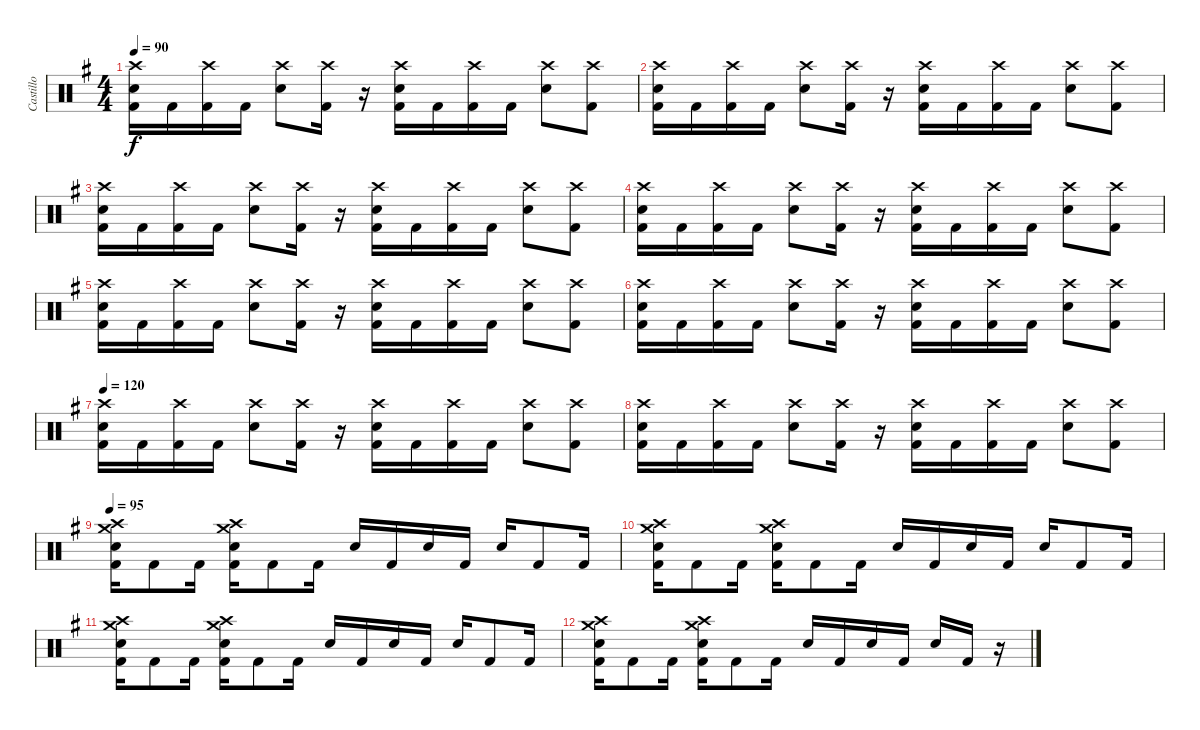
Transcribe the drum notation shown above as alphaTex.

\track ("Castillo" "Castillo") {instrument percussion}
\staff {score}
\articulation defaults
\ts (4 4)
\tempo 90
\clef neutral
\ks g
("Kick (hit) 2" "Electric Snare (hit)" "Crash high (hit)").16{dy f} "Kick (hit) 2".16 ("Kick (hit) 2" "Crash high (hit)").16 "Kick (hit) 2".16 ("Electric Snare (hit)" "Crash high (hit)").8 ("Kick (hit) 2" "Crash high (hit)").16 r.16 ("Kick (hit) 2" "Electric Snare (hit)" "Crash high (hit)").16 "Kick (hit) 2".16 ("Kick (hit) 2" "Crash high (hit)").16 "Kick (hit) 2".16 ("Electric Snare (hit)" "Crash high (hit)").8 ("Kick (hit) 2" "Crash high (hit)").8 |
("Kick (hit) 2" "Electric Snare (hit)" "Crash high (hit)").16 "Kick (hit) 2".16 ("Kick (hit) 2" "Crash high (hit)").16 "Kick (hit) 2".16 ("Electric Snare (hit)" "Crash high (hit)").8 ("Kick (hit) 2" "Crash high (hit)").16 r.16 ("Kick (hit) 2" "Electric Snare (hit)" "Crash high (hit)").16 "Kick (hit) 2".16 ("Kick (hit) 2" "Crash high (hit)").16 "Kick (hit) 2".16 ("Electric Snare (hit)" "Crash high (hit)").8 ("Kick (hit) 2" "Crash high (hit)").8 |
("Kick (hit) 2" "Electric Snare (hit)" "Crash high (hit)").16 "Kick (hit) 2".16 ("Kick (hit) 2" "Crash high (hit)").16 "Kick (hit) 2".16 ("Electric Snare (hit)" "Crash high (hit)").8 ("Kick (hit) 2" "Crash high (hit)").16 r.16 ("Kick (hit) 2" "Electric Snare (hit)" "Crash high (hit)").16 "Kick (hit) 2".16 ("Kick (hit) 2" "Crash high (hit)").16 "Kick (hit) 2".16 ("Electric Snare (hit)" "Crash high (hit)").8 ("Kick (hit) 2" "Crash high (hit)").8 |
("Kick (hit) 2" "Electric Snare (hit)" "Crash high (hit)").16 "Kick (hit) 2".16 ("Kick (hit) 2" "Crash high (hit)").16 "Kick (hit) 2".16 ("Electric Snare (hit)" "Crash high (hit)").8 ("Kick (hit) 2" "Crash high (hit)").16 r.16 ("Kick (hit) 2" "Electric Snare (hit)" "Crash high (hit)").16 "Kick (hit) 2".16 ("Kick (hit) 2" "Crash high (hit)").16 "Kick (hit) 2".16 ("Electric Snare (hit)" "Crash high (hit)").8 ("Kick (hit) 2" "Crash high (hit)").8 |
("Kick (hit) 2" "Electric Snare (hit)" "Crash high (hit)").16 "Kick (hit) 2".16 ("Kick (hit) 2" "Crash high (hit)").16 "Kick (hit) 2".16 ("Electric Snare (hit)" "Crash high (hit)").8 ("Kick (hit) 2" "Crash high (hit)").16 r.16 ("Kick (hit) 2" "Electric Snare (hit)" "Crash high (hit)").16 "Kick (hit) 2".16 ("Kick (hit) 2" "Crash high (hit)").16 "Kick (hit) 2".16 ("Electric Snare (hit)" "Crash high (hit)").8 ("Kick (hit) 2" "Crash high (hit)").8 |
("Kick (hit) 2" "Electric Snare (hit)" "Crash high (hit)").16 "Kick (hit) 2".16 ("Kick (hit) 2" "Crash high (hit)").16 "Kick (hit) 2".16 ("Electric Snare (hit)" "Crash high (hit)").8 ("Kick (hit) 2" "Crash high (hit)").16 r.16 ("Kick (hit) 2" "Electric Snare (hit)" "Crash high (hit)").16 "Kick (hit) 2".16 ("Kick (hit) 2" "Crash high (hit)").16 "Kick (hit) 2".16 ("Electric Snare (hit)" "Crash high (hit)").8 ("Kick (hit) 2" "Crash high (hit)").8 |
\tempo 120
("Kick (hit) 2" "Electric Snare (hit)" "Crash high (hit)").16 "Kick (hit) 2".16 ("Kick (hit) 2" "Crash high (hit)").16 "Kick (hit) 2".16 ("Electric Snare (hit)" "Crash high (hit)").8 ("Kick (hit) 2" "Crash high (hit)").16 r.16 ("Kick (hit) 2" "Electric Snare (hit)" "Crash high (hit)").16 "Kick (hit) 2".16 ("Kick (hit) 2" "Crash high (hit)").16 "Kick (hit) 2".16 ("Electric Snare (hit)" "Crash high (hit)").8 ("Kick (hit) 2" "Crash high (hit)").8 |
("Kick (hit) 2" "Electric Snare (hit)" "Crash high (hit)").16 "Kick (hit) 2".16 ("Kick (hit) 2" "Crash high (hit)").16 "Kick (hit) 2".16 ("Electric Snare (hit)" "Crash high (hit)").8 ("Kick (hit) 2" "Crash high (hit)").16 r.16 ("Kick (hit) 2" "Electric Snare (hit)" "Crash high (hit)").16 "Kick (hit) 2".16 ("Kick (hit) 2" "Crash high (hit)").16 "Kick (hit) 2".16 ("Electric Snare (hit)" "Crash high (hit)").8 ("Kick (hit) 2" "Crash high (hit)").8 |
\tempo 95
("Kick (hit) 2" "Electric Snare (hit)" "Crash high (hit)" "Crash medium (hit)").16 "Kick (hit) 2".8 "Kick (hit) 2".16 ("Kick (hit) 2" "Electric Snare (hit)" "Crash high (hit)" "Crash medium (hit)").16 "Kick (hit) 2".8 "Kick (hit) 2".16 "Electric Snare (hit)".16 "Kick (hit) 2".16 "Electric Snare (hit)".16 "Kick (hit) 2".16 "Electric Snare (hit)".16 "Kick (hit) 2".8 "Kick (hit) 2".16 |
("Kick (hit) 2" "Electric Snare (hit)" "Crash high (hit)" "Crash medium (hit)").16 "Kick (hit) 2".8 "Kick (hit) 2".16 ("Kick (hit) 2" "Electric Snare (hit)" "Crash high (hit)" "Crash medium (hit)").16 "Kick (hit) 2".8 "Kick (hit) 2".16 "Electric Snare (hit)".16 "Kick (hit) 2".16 "Electric Snare (hit)".16 "Kick (hit) 2".16 "Electric Snare (hit)".16 "Kick (hit) 2".8 "Kick (hit) 2".16 |
("Kick (hit) 2" "Electric Snare (hit)" "Crash high (hit)" "Crash medium (hit)").16 "Kick (hit) 2".8 "Kick (hit) 2".16 ("Kick (hit) 2" "Electric Snare (hit)" "Crash high (hit)" "Crash medium (hit)").16 "Kick (hit) 2".8 "Kick (hit) 2".16 "Electric Snare (hit)".16 "Kick (hit) 2".16 "Electric Snare (hit)".16 "Kick (hit) 2".16 "Electric Snare (hit)".16 "Kick (hit) 2".8 "Kick (hit) 2".16 |
("Kick (hit) 2" "Electric Snare (hit)" "Crash high (hit)" "Crash medium (hit)").16 "Kick (hit) 2".8 "Kick (hit) 2".16 ("Kick (hit) 2" "Electric Snare (hit)" "Crash high (hit)" "Crash medium (hit)").16 "Kick (hit) 2".8 "Kick (hit) 2".16 "Electric Snare (hit)".16 "Kick (hit) 2".16 "Electric Snare (hit)".16 "Kick (hit) 2".16 "Electric Snare (hit)".16 "Kick (hit) 2".16 r.16
